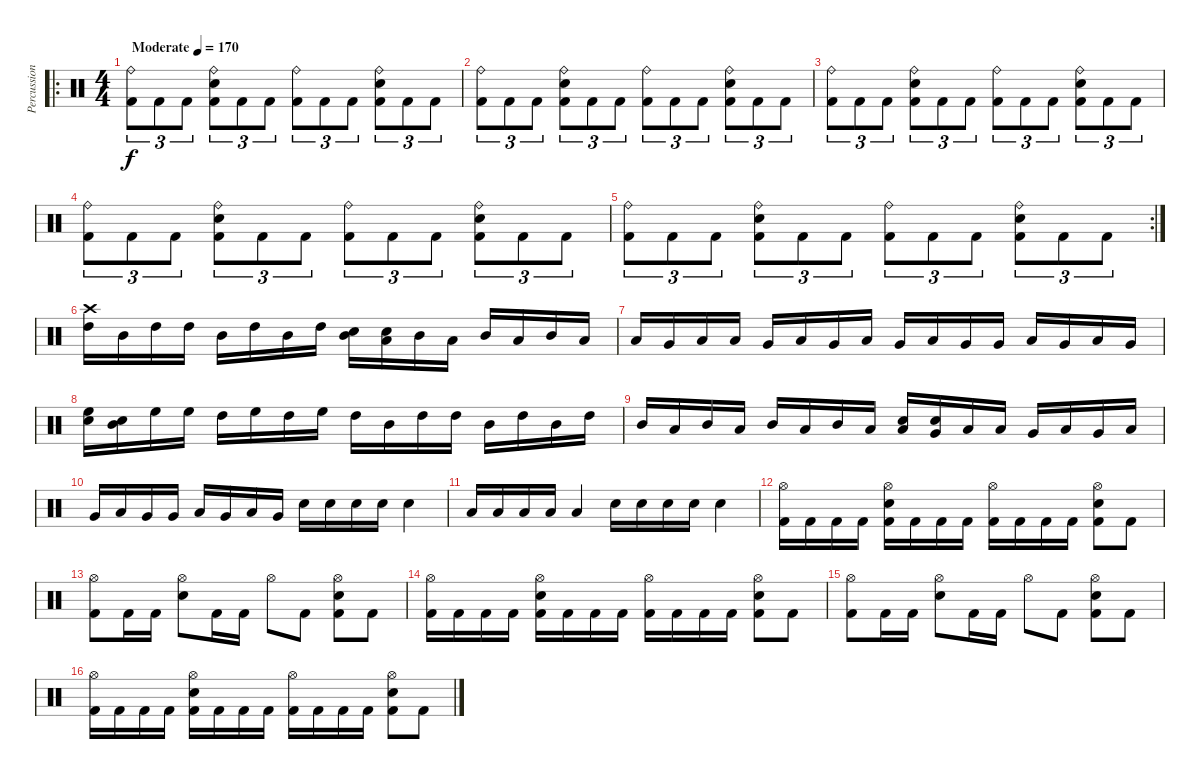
\track ("Percussion" "Percussion") {instrument percussion}
\staff {score}
\articulation defaults
\ro
\ts (4 4)
\tempo (170 "Moderate")
\clef neutral
\ks c
("Ride (bell)" "Kick (hit) 2").8{tu (3 2) dy f} "Kick (hit) 2".8{tu (3 2)} "Kick (hit) 2".8{tu (3 2)} ("Ride (bell)" "Snare (hit) 2" "Kick (hit) 2").8{tu (3 2)} "Kick (hit) 2".8{tu (3 2)} "Kick (hit) 2".8{tu (3 2)} ("Ride (bell)" "Kick (hit) 2").8{tu (3 2)} "Kick (hit) 2".8{tu (3 2)} "Kick (hit) 2".8{tu (3 2)} ("Ride (bell)" "Snare (hit) 2" "Kick (hit) 2").8{tu (3 2)} "Kick (hit) 2".8{tu (3 2)} "Kick (hit) 2".8{tu (3 2)} |
("Ride (bell)" "Kick (hit) 2").8{tu (3 2)} "Kick (hit) 2".8{tu (3 2)} "Kick (hit) 2".8{tu (3 2)} ("Ride (bell)" "Snare (hit) 2" "Kick (hit) 2").8{tu (3 2)} "Kick (hit) 2".8{tu (3 2)} "Kick (hit) 2".8{tu (3 2)} ("Ride (bell)" "Kick (hit) 2").8{tu (3 2)} "Kick (hit) 2".8{tu (3 2)} "Kick (hit) 2".8{tu (3 2)} ("Ride (bell)" "Snare (hit) 2" "Kick (hit) 2").8{tu (3 2)} "Kick (hit) 2".8{tu (3 2)} "Kick (hit) 2".8{tu (3 2)} |
("Ride (bell)" "Kick (hit) 2").8{tu (3 2)} "Kick (hit) 2".8{tu (3 2)} "Kick (hit) 2".8{tu (3 2)} ("Ride (bell)" "Snare (hit) 2" "Kick (hit) 2").8{tu (3 2)} "Kick (hit) 2".8{tu (3 2)} "Kick (hit) 2".8{tu (3 2)} ("Ride (bell)" "Kick (hit) 2").8{tu (3 2)} "Kick (hit) 2".8{tu (3 2)} "Kick (hit) 2".8{tu (3 2)} ("Ride (bell)" "Snare (hit) 2" "Kick (hit) 2").8{tu (3 2)} "Kick (hit) 2".8{tu (3 2)} "Kick (hit) 2".8{tu (3 2)} |
("Ride (bell)" "Kick (hit) 2").8{tu (3 2)} "Kick (hit) 2".8{tu (3 2)} "Kick (hit) 2".8{tu (3 2)} ("Ride (bell)" "Snare (hit) 2" "Kick (hit) 2").8{tu (3 2)} "Kick (hit) 2".8{tu (3 2)} "Kick (hit) 2".8{tu (3 2)} ("Ride (bell)" "Kick (hit) 2").8{tu (3 2)} "Kick (hit) 2".8{tu (3 2)} "Kick (hit) 2".8{tu (3 2)} ("Ride (bell)" "Snare (hit) 2" "Kick (hit) 2").8{tu (3 2)} "Kick (hit) 2".8{tu (3 2)} "Kick (hit) 2".8{tu (3 2)} |
\rc 2
("Ride (bell)" "Kick (hit) 2").8{tu (3 2)} "Kick (hit) 2".8{tu (3 2)} "Kick (hit) 2".8{tu (3 2)} ("Ride (bell)" "Snare (hit) 2" "Kick (hit) 2").8{tu (3 2)} "Kick (hit) 2".8{tu (3 2)} "Kick (hit) 2".8{tu (3 2)} ("Ride (bell)" "Kick (hit) 2").8{tu (3 2)} "Kick (hit) 2".8{tu (3 2)} "Kick (hit) 2".8{tu (3 2)} ("Ride (bell)" "Snare (hit) 2" "Kick (hit) 2").8{tu (3 2)} "Kick (hit) 2".8{tu (3 2)} "Kick (hit) 2".8{tu (3 2)} |
("Crash high (hit)" "High Tom (hit)").16 "Mid Tom (hit)".16 "High Tom (hit)".16 "High Tom (hit)".16 "Mid Tom (hit)".16 "High Tom (hit)".16 "Mid Tom (hit)".16 "High Tom (hit)".16 ("Mid Tom (hit)" "Snare (hit) 2").16 ("Low Tom (hit)" "Snare (hit) 2").16 "Mid Tom (hit)".16 "Low Tom (hit)".16 "Mid Tom (hit)".16 "Low Tom (hit)".16 "Mid Tom (hit)".16 "Low Tom (hit)".16 |
"Low Tom (hit)".16 "Very Low Tom (hit)".16 "Low Tom (hit)".16 "Low Tom (hit)".16 "Very Low Tom (hit)".16 "Low Tom (hit)".16 "Very Low Tom (hit)".16 "Low Tom (hit)".16 "Very Low Tom (hit)".16 "Low Floor Tom (hit)".16 "Very Low Tom (hit)".16 "Very Low Tom (hit)".16 "Low Floor Tom (hit)".16 "Very Low Tom (hit)".16 "Low Floor Tom (hit)".16 "Very Low Tom (hit)".16 |
("High Floor Tom (hit)" "Snare (hit) 2").16 ("Mid Tom (hit)" "Snare (hit) 2").16 "High Floor Tom (hit)".16 "High Floor Tom (hit)".16 "High Tom (hit)".16 "High Floor Tom (hit)".16 "High Tom (hit)".16 "High Floor Tom (hit)".16 "High Tom (hit)".16 "Mid Tom (hit)".16 "High Tom (hit)".16 "High Tom (hit)".16 "Mid Tom (hit)".16 "High Tom (hit)".16 "Mid Tom (hit)".16 "High Tom (hit)".16 |
"Mid Tom (hit)".16 "Low Tom (hit)".16 "Mid Tom (hit)".16 "Low Tom (hit)".16 "Mid Tom (hit)".16 "Low Tom (hit)".16 "Mid Tom (hit)".16 "Low Tom (hit)".16 ("Low Tom (hit)" "Snare (hit) 2").16 ("Very Low Tom (hit)" "Snare (hit) 2").16 "Low Tom (hit)".16 "Low Tom (hit)".16 "Very Low Tom (hit)".16 "Low Tom (hit)".16 "Very Low Tom (hit)".16 "Low Tom (hit)".16 |
"Very Low Tom (hit)".16 "Low Floor Tom (hit)".16 "Very Low Tom (hit)".16 "Very Low Tom (hit)".16 "Low Floor Tom (hit)".16 "Very Low Tom (hit)".16 "Low Floor Tom (hit)".16 "Very Low Tom (hit)".16 "Snare (hit) 2".16 "Snare (hit) 2".16 "Snare (hit) 2".16 "Snare (hit) 2".16 "Snare (hit) 2".4 |
"Low Tom (hit)".16 "Low Tom (hit)".16 "Low Tom (hit)".16 "Low Tom (hit)".16 "Low Tom (hit)".4 "Snare (hit) 2".16 "Snare (hit) 2".16 "Snare (hit) 2".16 "Snare (hit) 2".16 "Snare (hit) 2".4 |
("Hi-Hat (open)" "Kick (hit) 2").16 "Kick (hit) 2".16 "Kick (hit) 2".16 "Kick (hit) 2".16 ("Hi-Hat (open)" "Snare (hit) 2" "Kick (hit) 2").16 "Kick (hit) 2".16 "Kick (hit) 2".16 "Kick (hit) 2".16 ("Hi-Hat (open)" "Kick (hit) 2").16 "Kick (hit) 2".16 "Kick (hit) 2".16 "Kick (hit) 2".16 ("Hi-Hat (open)" "Snare (hit) 2" "Kick (hit) 2").8 "Kick (hit) 2".8 |
("Hi-Hat (open)" "Kick (hit) 2").8 "Kick (hit) 2".16 "Kick (hit) 2".16 ("Hi-Hat (open)" "Snare (hit) 2").8 "Kick (hit) 2".16 "Kick (hit) 2".16 "Hi-Hat (open)".8 "Kick (hit) 2".8 ("Hi-Hat (open)" "Snare (hit) 2" "Kick (hit) 2").8 "Kick (hit) 2".8 |
("Hi-Hat (open)" "Kick (hit) 2").16 "Kick (hit) 2".16 "Kick (hit) 2".16 "Kick (hit) 2".16 ("Hi-Hat (open)" "Snare (hit) 2" "Kick (hit) 2").16 "Kick (hit) 2".16 "Kick (hit) 2".16 "Kick (hit) 2".16 ("Hi-Hat (open)" "Kick (hit) 2").16 "Kick (hit) 2".16 "Kick (hit) 2".16 "Kick (hit) 2".16 ("Hi-Hat (open)" "Snare (hit) 2" "Kick (hit) 2").8 "Kick (hit) 2".8 |
("Hi-Hat (open)" "Kick (hit) 2").8 "Kick (hit) 2".16 "Kick (hit) 2".16 ("Hi-Hat (open)" "Snare (hit) 2").8 "Kick (hit) 2".16 "Kick (hit) 2".16 "Hi-Hat (open)".8 "Kick (hit) 2".8 ("Hi-Hat (open)" "Snare (hit) 2" "Kick (hit) 2").8 "Kick (hit) 2".8 |
("Hi-Hat (open)" "Kick (hit) 2").16 "Kick (hit) 2".16 "Kick (hit) 2".16 "Kick (hit) 2".16 ("Hi-Hat (open)" "Snare (hit) 2" "Kick (hit) 2").16 "Kick (hit) 2".16 "Kick (hit) 2".16 "Kick (hit) 2".16 ("Hi-Hat (open)" "Kick (hit) 2").16 "Kick (hit) 2".16 "Kick (hit) 2".16 "Kick (hit) 2".16 ("Hi-Hat (open)" "Snare (hit) 2" "Kick (hit) 2").8 "Kick (hit) 2".8
